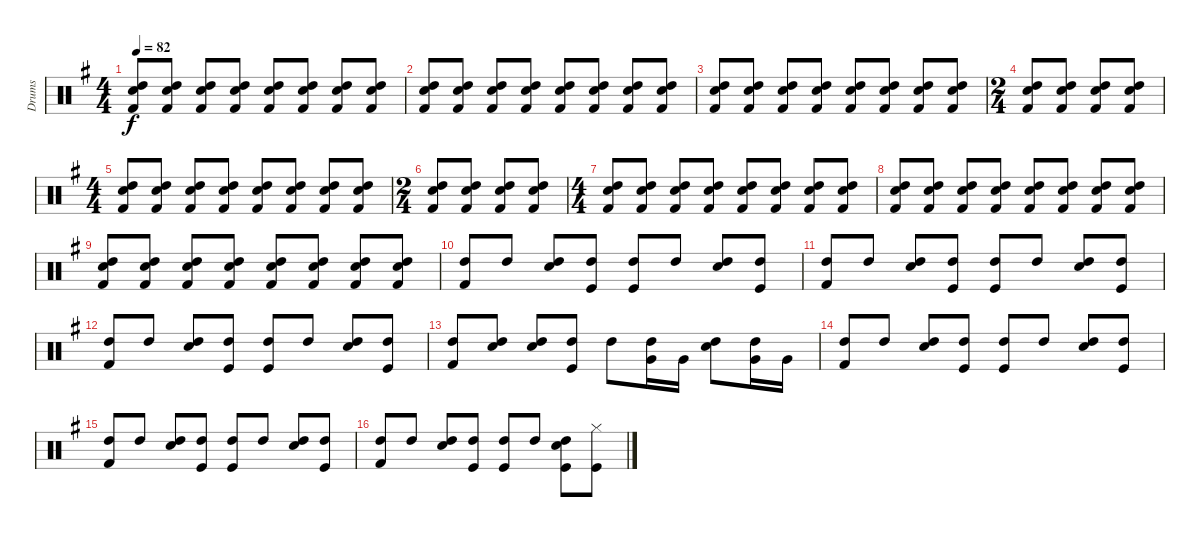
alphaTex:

\track ("Drums" "Drums") {instrument percussion}
\staff {score}
\articulation defaults
\ts (4 4)
\tempo 82
\clef neutral
\ks g
("High Tom (hit)" "Snare (hit) 2" "Kick (hit) 2").8{dy f} ("High Tom (hit)" "Snare (hit) 2" "Kick (hit) 2").8 ("High Tom (hit)" "Snare (hit) 2" "Kick (hit) 2").8 ("High Tom (hit)" "Snare (hit) 2" "Kick (hit) 2").8 ("High Tom (hit)" "Snare (hit) 2" "Kick (hit) 2").8 ("High Tom (hit)" "Snare (hit) 2" "Kick (hit) 2").8 ("High Tom (hit)" "Snare (hit) 2" "Kick (hit) 2").8 ("High Tom (hit)" "Snare (hit) 2" "Kick (hit) 2").8 |
("High Tom (hit)" "Snare (hit) 2" "Kick (hit) 2").8 ("High Tom (hit)" "Snare (hit) 2" "Kick (hit) 2").8 ("High Tom (hit)" "Snare (hit) 2" "Kick (hit) 2").8 ("High Tom (hit)" "Snare (hit) 2" "Kick (hit) 2").8 ("High Tom (hit)" "Snare (hit) 2" "Kick (hit) 2").8 ("High Tom (hit)" "Snare (hit) 2" "Kick (hit) 2").8 ("High Tom (hit)" "Snare (hit) 2" "Kick (hit) 2").8 ("High Tom (hit)" "Snare (hit) 2" "Kick (hit) 2").8 |
("High Tom (hit)" "Snare (hit) 2" "Kick (hit) 2").8 ("High Tom (hit)" "Snare (hit) 2" "Kick (hit) 2").8 ("High Tom (hit)" "Snare (hit) 2" "Kick (hit) 2").8 ("High Tom (hit)" "Snare (hit) 2" "Kick (hit) 2").8 ("High Tom (hit)" "Snare (hit) 2" "Kick (hit) 2").8 ("High Tom (hit)" "Snare (hit) 2" "Kick (hit) 2").8 ("High Tom (hit)" "Snare (hit) 2" "Kick (hit) 2").8 ("High Tom (hit)" "Snare (hit) 2" "Kick (hit) 2").8 |
\ts (2 4)
("High Tom (hit)" "Snare (hit) 2" "Kick (hit) 2").8 ("High Tom (hit)" "Snare (hit) 2" "Kick (hit) 2").8 ("High Tom (hit)" "Snare (hit) 2" "Kick (hit) 2").8 ("High Tom (hit)" "Snare (hit) 2" "Kick (hit) 2").8 |
\ts (4 4)
("High Tom (hit)" "Snare (hit) 2" "Kick (hit) 2").8 ("High Tom (hit)" "Snare (hit) 2" "Kick (hit) 2").8 ("High Tom (hit)" "Snare (hit) 2" "Kick (hit) 2").8 ("High Tom (hit)" "Snare (hit) 2" "Kick (hit) 2").8 ("High Tom (hit)" "Snare (hit) 2" "Kick (hit) 2").8 ("High Tom (hit)" "Snare (hit) 2" "Kick (hit) 2").8 ("High Tom (hit)" "Snare (hit) 2" "Kick (hit) 2").8 ("High Tom (hit)" "Snare (hit) 2" "Kick (hit) 2").8 |
\ts (2 4)
("High Tom (hit)" "Snare (hit) 2" "Kick (hit) 2").8 ("High Tom (hit)" "Snare (hit) 2" "Kick (hit) 2").8 ("High Tom (hit)" "Snare (hit) 2" "Kick (hit) 2").8 ("High Tom (hit)" "Snare (hit) 2" "Kick (hit) 2").8 |
\ts (4 4)
("High Tom (hit)" "Snare (hit) 2" "Kick (hit) 2").8 ("High Tom (hit)" "Snare (hit) 2" "Kick (hit) 2").8 ("High Tom (hit)" "Snare (hit) 2" "Kick (hit) 2").8 ("High Tom (hit)" "Snare (hit) 2" "Kick (hit) 2").8 ("High Tom (hit)" "Snare (hit) 2" "Kick (hit) 2").8 ("High Tom (hit)" "Snare (hit) 2" "Kick (hit) 2").8 ("High Tom (hit)" "Snare (hit) 2" "Kick (hit) 2").8 ("High Tom (hit)" "Snare (hit) 2" "Kick (hit) 2").8 |
("High Tom (hit)" "Snare (hit) 2" "Kick (hit) 2").8 ("High Tom (hit)" "Snare (hit) 2" "Kick (hit) 2").8 ("High Tom (hit)" "Snare (hit) 2" "Kick (hit) 2").8 ("High Tom (hit)" "Snare (hit) 2" "Kick (hit) 2").8 ("High Tom (hit)" "Snare (hit) 2" "Kick (hit) 2").8 ("High Tom (hit)" "Snare (hit) 2" "Kick (hit) 2").8 ("High Tom (hit)" "Snare (hit) 2" "Kick (hit) 2").8 ("High Tom (hit)" "Snare (hit) 2" "Kick (hit) 2").8 |
("High Tom (hit)" "Snare (hit) 2" "Kick (hit) 2").8 ("High Tom (hit)" "Snare (hit) 2" "Kick (hit) 2").8 ("High Tom (hit)" "Snare (hit) 2" "Kick (hit) 2").8 ("High Tom (hit)" "Snare (hit) 2" "Kick (hit) 2").8 ("High Tom (hit)" "Snare (hit) 2" "Kick (hit) 2").8 ("High Tom (hit)" "Snare (hit) 2" "Kick (hit) 2").8 ("High Tom (hit)" "Snare (hit) 2" "Kick (hit) 2").8 ("High Tom (hit)" "Snare (hit) 2" "Kick (hit) 2").8 |
("High Tom (hit)" "Kick (hit) 2").8 "High Tom (hit)".8 ("High Tom (hit)" "Snare (hit) 2").8 ("High Tom (hit)" "Kick (hit)").8 ("High Tom (hit)" "Kick (hit)").8 "High Tom (hit)".8 ("High Tom (hit)" "Snare (hit) 2").8 ("High Tom (hit)" "Kick (hit)").8 |
("High Tom (hit)" "Kick (hit) 2").8 "High Tom (hit)".8 ("High Tom (hit)" "Snare (hit) 2").8 ("High Tom (hit)" "Kick (hit)").8 ("High Tom (hit)" "Kick (hit)").8 "High Tom (hit)".8 ("High Tom (hit)" "Snare (hit) 2").8 ("High Tom (hit)" "Kick (hit)").8 |
("High Tom (hit)" "Kick (hit) 2").8 "High Tom (hit)".8 ("High Tom (hit)" "Snare (hit) 2").8 ("High Tom (hit)" "Kick (hit)").8 ("High Tom (hit)" "Kick (hit)").8 "High Tom (hit)".8 ("High Tom (hit)" "Snare (hit) 2").8 ("High Tom (hit)" "Kick (hit)").8 |
("High Tom (hit)" "Kick (hit) 2").8 ("High Tom (hit)" "Snare (hit) 2").8 ("High Tom (hit)" "Snare (hit) 2").8 ("High Tom (hit)" "Kick (hit)").8 "High Tom (hit)".8 ("High Tom (hit)" "Very Low Tom (hit)").16 "Very Low Tom (hit)".16 ("High Tom (hit)" "Snare (hit) 2").8 ("High Tom (hit)" "Very Low Tom (hit)").16 "Very Low Tom (hit)".16 |
("High Tom (hit)" "Kick (hit) 2").8 "High Tom (hit)".8 ("High Tom (hit)" "Snare (hit) 2").8 ("High Tom (hit)" "Kick (hit)").8 ("High Tom (hit)" "Kick (hit)").8 "High Tom (hit)".8 ("High Tom (hit)" "Snare (hit) 2").8 ("High Tom (hit)" "Kick (hit)").8 |
("High Tom (hit)" "Kick (hit) 2").8 "High Tom (hit)".8 ("High Tom (hit)" "Snare (hit) 2").8 ("High Tom (hit)" "Kick (hit)").8 ("High Tom (hit)" "Kick (hit)").8 "High Tom (hit)".8 ("High Tom (hit)" "Snare (hit) 2").8 ("High Tom (hit)" "Kick (hit)").8 |
("High Tom (hit)" "Kick (hit) 2").8 "High Tom (hit)".8 ("High Tom (hit)" "Snare (hit) 2").8 ("High Tom (hit)" "Kick (hit)").8 ("High Tom (hit)" "Kick (hit)").8 "High Tom (hit)".8 ("High Tom (hit)" "Snare (hit) 2" "Kick (hit)").8 ("Hi-Hat (closed)" "Kick (hit)").8
